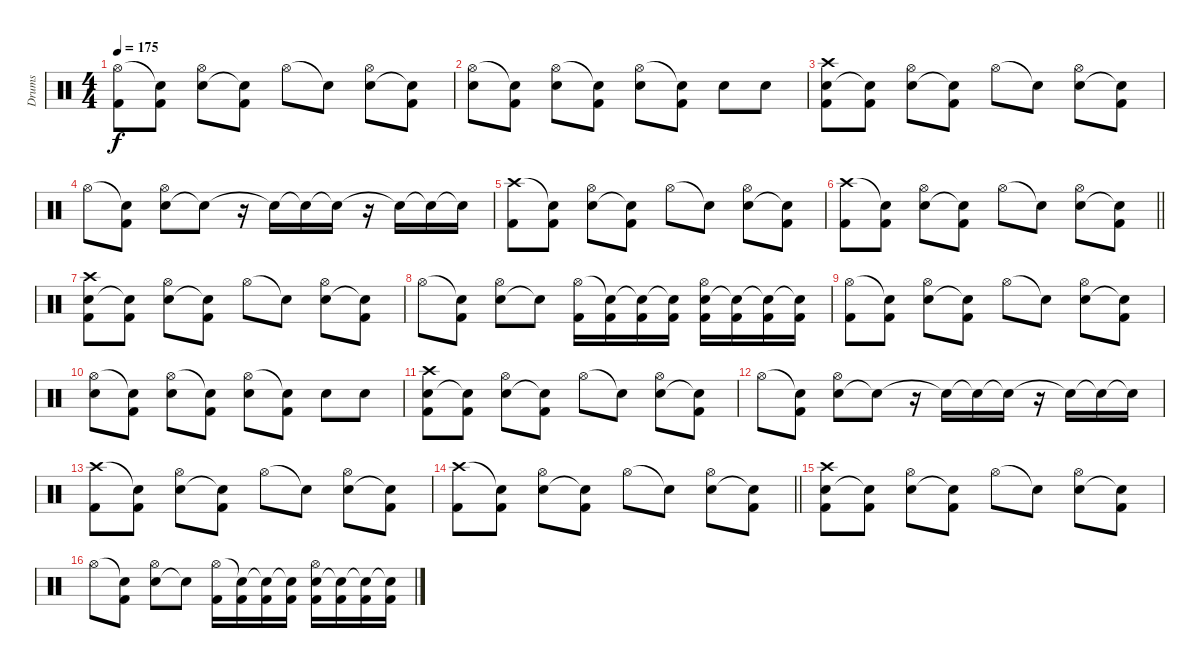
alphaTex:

\track ("Drums" "Drums") {instrument percussion}
\staff {score}
\articulation defaults
\ts (4 4)
\tempo 175
\clef neutral
\ks c
("Hi-Hat (open)" "Kick (hit) 2").8{dy f} ("Snare (hit)"{t} "Kick (hit) 2").8 ("Snare (hit) 2" "Hi-Hat (open)").8 ("Snare (hit)"{t} "Kick (hit) 2").8 "Hi-Hat (open)".8 "Snare (hit)"{t}.8 ("Snare (hit) 2" "Hi-Hat (open)").8 ("Snare (hit)"{t} "Kick (hit) 2").8 |
("Hi-Hat (open)" "Snare (hit) 2").8 ("Snare (hit)"{t} "Kick (hit) 2").8 ("Hi-Hat (open)" "Snare (hit) 2").8 ("Snare (hit)"{t} "Kick (hit) 2").8 ("Hi-Hat (open)" "Snare (hit) 2").8 ("Snare (hit)"{t} "Kick (hit) 2").8 "Snare (hit) 2".8 "Snare (hit) 2".8 |
("Snare (hit) 2" "Crash high (hit)" "Kick (hit) 2").8 ("Snare (hit)"{t} "Kick (hit) 2").8 ("Snare (hit) 2" "Hi-Hat (open)").8 ("Snare (hit)"{t} "Kick (hit) 2").8 "Hi-Hat (open)".8 "Snare (hit)"{t}.8 ("Snare (hit) 2" "Hi-Hat (open)").8 ("Snare (hit)"{t} "Kick (hit) 2").8 |
"Hi-Hat (open)".8 ("Snare (hit)"{t} "Kick (hit) 2").8 ("Snare (hit) 2" "Hi-Hat (open)").8 "Snare (hit)"{t}.8 r.16 "Snare (hit)"{t}.16 "Snare (hit)"{t}.16 "Snare (hit)"{t}.16 r.16 "Snare (hit)"{t}.16 "Snare (hit)"{t}.16 "Snare (hit)"{t}.16 |
("Crash high (hit)" "Kick (hit) 2").8 ("Snare (hit)"{t} "Kick (hit) 2").8 ("Snare (hit) 2" "Hi-Hat (open)").8 ("Snare (hit)"{t} "Kick (hit) 2").8 "Hi-Hat (open)".8 "Snare (hit)"{t}.8 ("Snare (hit) 2" "Hi-Hat (open)").8 ("Snare (hit)"{t} "Kick (hit) 2").8 |
\barLineRight lightlight
("Crash high (hit)" "Kick (hit) 2").8 ("Snare (hit)"{t} "Kick (hit) 2").8 ("Snare (hit) 2" "Hi-Hat (open)").8 ("Snare (hit)"{t} "Kick (hit) 2").8 "Hi-Hat (open)".8 "Snare (hit)"{t}.8 ("Snare (hit) 2" "Hi-Hat (open)").8 ("Snare (hit)"{t} "Kick (hit) 2").8 |
("Snare (hit) 2" "Crash high (hit)" "Kick (hit) 2").8 ("Snare (hit)"{t} "Kick (hit) 2").8 ("Snare (hit) 2" "Hi-Hat (open)").8 ("Snare (hit)"{t} "Kick (hit) 2").8 "Hi-Hat (open)".8 "Snare (hit)"{t}.8 ("Snare (hit) 2" "Hi-Hat (open)").8 ("Snare (hit)"{t} "Kick (hit) 2").8 |
"Hi-Hat (open)".8 ("Snare (hit)"{t} "Kick (hit) 2").8 ("Snare (hit) 2" "Hi-Hat (open)").8 "Snare (hit)"{t}.8 ("Hi-Hat (open)" "Kick (hit) 2").16 ("Snare (hit)"{t} "Kick (hit) 2").16 ("Snare (hit)"{t} "Kick (hit) 2").16 ("Snare (hit)"{t} "Kick (hit) 2").16 ("Snare (hit) 2" "Hi-Hat (open)" "Kick (hit) 2").16 ("Snare (hit)"{t} "Kick (hit) 2").16 ("Snare (hit)"{t} "Kick (hit) 2").16 ("Snare (hit)"{t} "Kick (hit) 2").16 |
("Hi-Hat (open)" "Kick (hit) 2").8 ("Snare (hit)"{t} "Kick (hit) 2").8 ("Snare (hit) 2" "Hi-Hat (open)").8 ("Snare (hit)"{t} "Kick (hit) 2").8 "Hi-Hat (open)".8 "Snare (hit)"{t}.8 ("Snare (hit) 2" "Hi-Hat (open)").8 ("Snare (hit)"{t} "Kick (hit) 2").8 |
("Hi-Hat (open)" "Snare (hit) 2").8 ("Snare (hit)"{t} "Kick (hit) 2").8 ("Hi-Hat (open)" "Snare (hit) 2").8 ("Snare (hit)"{t} "Kick (hit) 2").8 ("Hi-Hat (open)" "Snare (hit) 2").8 ("Snare (hit)"{t} "Kick (hit) 2").8 "Snare (hit) 2".8 "Snare (hit) 2".8 |
("Snare (hit) 2" "Crash high (hit)" "Kick (hit) 2").8 ("Snare (hit)"{t} "Kick (hit) 2").8 ("Snare (hit) 2" "Hi-Hat (open)").8 ("Snare (hit)"{t} "Kick (hit) 2").8 "Hi-Hat (open)".8 "Snare (hit)"{t}.8 ("Snare (hit) 2" "Hi-Hat (open)").8 ("Snare (hit)"{t} "Kick (hit) 2").8 |
"Hi-Hat (open)".8 ("Snare (hit)"{t} "Kick (hit) 2").8 ("Snare (hit) 2" "Hi-Hat (open)").8 "Snare (hit)"{t}.8 r.16 "Snare (hit)"{t}.16 "Snare (hit)"{t}.16 "Snare (hit)"{t}.16 r.16 "Snare (hit)"{t}.16 "Snare (hit)"{t}.16 "Snare (hit)"{t}.16 |
("Crash high (hit)" "Kick (hit) 2").8 ("Snare (hit)"{t} "Kick (hit) 2").8 ("Snare (hit) 2" "Hi-Hat (open)").8 ("Snare (hit)"{t} "Kick (hit) 2").8 "Hi-Hat (open)".8 "Snare (hit)"{t}.8 ("Snare (hit) 2" "Hi-Hat (open)").8 ("Snare (hit)"{t} "Kick (hit) 2").8 |
\barLineRight lightlight
("Crash high (hit)" "Kick (hit) 2").8 ("Snare (hit)"{t} "Kick (hit) 2").8 ("Snare (hit) 2" "Hi-Hat (open)").8 ("Snare (hit)"{t} "Kick (hit) 2").8 "Hi-Hat (open)".8 "Snare (hit)"{t}.8 ("Snare (hit) 2" "Hi-Hat (open)").8 ("Snare (hit)"{t} "Kick (hit) 2").8 |
("Snare (hit) 2" "Crash high (hit)" "Kick (hit) 2").8 ("Snare (hit)"{t} "Kick (hit) 2").8 ("Snare (hit) 2" "Hi-Hat (open)").8 ("Snare (hit)"{t} "Kick (hit) 2").8 "Hi-Hat (open)".8 "Snare (hit)"{t}.8 ("Snare (hit) 2" "Hi-Hat (open)").8 ("Snare (hit)"{t} "Kick (hit) 2").8 |
"Hi-Hat (open)".8 ("Snare (hit)"{t} "Kick (hit) 2").8 ("Snare (hit) 2" "Hi-Hat (open)").8 "Snare (hit)"{t}.8 ("Hi-Hat (open)" "Kick (hit) 2").16 ("Snare (hit)"{t} "Kick (hit) 2").16 ("Snare (hit)"{t} "Kick (hit) 2").16 ("Snare (hit)"{t} "Kick (hit) 2").16 ("Snare (hit) 2" "Hi-Hat (open)" "Kick (hit) 2").16 ("Snare (hit)"{t} "Kick (hit) 2").16 ("Snare (hit)"{t} "Kick (hit) 2").16 ("Snare (hit)"{t} "Kick (hit) 2").16
